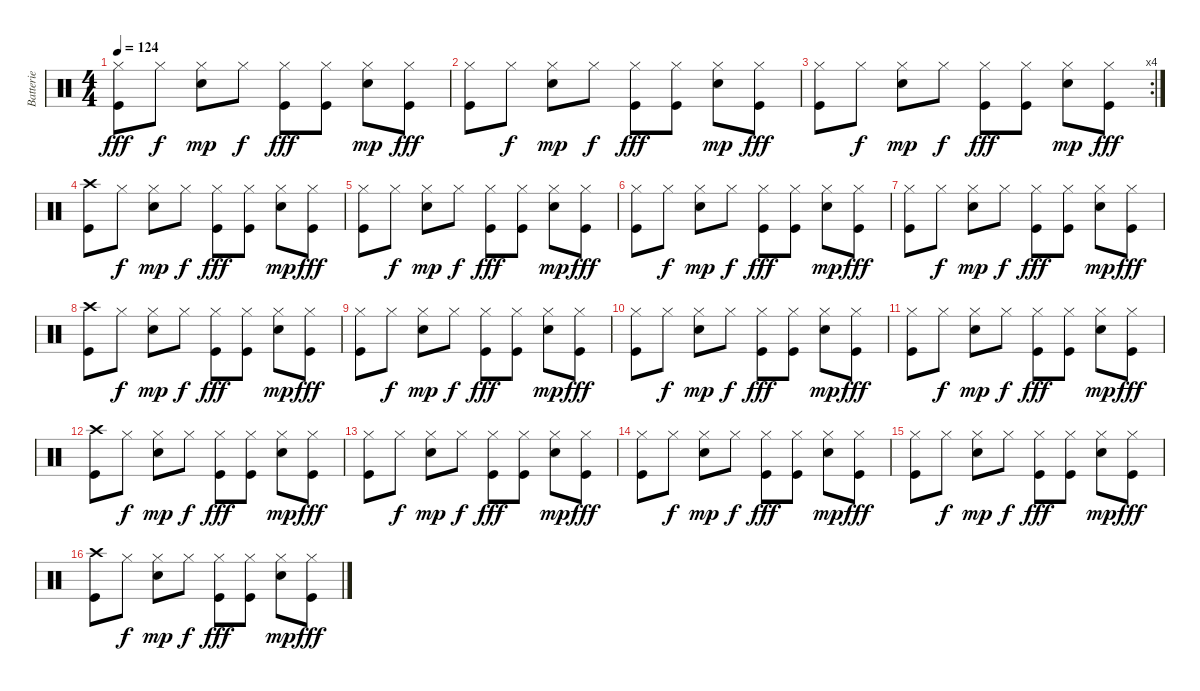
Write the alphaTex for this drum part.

\track ("Batterie" "Batterie") {instrument percussion}
\staff {score}
\articulation defaults
\ts (4 4)
\tempo 124
\clef neutral
\ks c
("Hi-Hat (closed)" "Kick (hit)").8{dy fff} "Hi-Hat (closed)".8{dy f} ("Hi-Hat (closed)" "Electric Snare (hit)").8{dy mp} "Hi-Hat (closed)".8{dy f} ("Hi-Hat (closed)" "Kick (hit)").8{dy fff} ("Hi-Hat (closed)" "Kick (hit)").8 ("Hi-Hat (closed)" "Electric Snare (hit)").8{dy mp} ("Hi-Hat (closed)" "Kick (hit)").8{dy fff} |
("Hi-Hat (closed)" "Kick (hit)").8 "Hi-Hat (closed)".8{dy f} ("Hi-Hat (closed)" "Electric Snare (hit)").8{dy mp} "Hi-Hat (closed)".8{dy f} ("Hi-Hat (closed)" "Kick (hit)").8{dy fff} ("Hi-Hat (closed)" "Kick (hit)").8 ("Hi-Hat (closed)" "Electric Snare (hit)").8{dy mp} ("Hi-Hat (closed)" "Kick (hit)").8{dy fff} |
\rc 4
("Hi-Hat (closed)" "Kick (hit)").8 "Hi-Hat (closed)".8{dy f} ("Hi-Hat (closed)" "Electric Snare (hit)").8{dy mp} "Hi-Hat (closed)".8{dy f} ("Hi-Hat (closed)" "Kick (hit)").8{dy fff} ("Hi-Hat (closed)" "Kick (hit)").8 ("Hi-Hat (closed)" "Electric Snare (hit)").8{dy mp} ("Hi-Hat (closed)" "Kick (hit)").8{dy fff} |
("Crash high (hit)" "Kick (hit)").8{volume 11} "Hi-Hat (closed)".8{dy f} ("Hi-Hat (closed)" "Electric Snare (hit)").8{dy mp} "Hi-Hat (closed)".8{dy f} ("Hi-Hat (closed)" "Kick (hit)").8{dy fff} ("Hi-Hat (closed)" "Kick (hit)").8 ("Hi-Hat (closed)" "Electric Snare (hit)").8{dy mp} ("Hi-Hat (closed)" "Kick (hit)").8{dy fff} |
("Hi-Hat (closed)" "Kick (hit)").8 "Hi-Hat (closed)".8{dy f} ("Hi-Hat (closed)" "Electric Snare (hit)").8{dy mp} "Hi-Hat (closed)".8{dy f} ("Hi-Hat (closed)" "Kick (hit)").8{dy fff} ("Hi-Hat (closed)" "Kick (hit)").8 ("Hi-Hat (closed)" "Electric Snare (hit)").8{dy mp} ("Hi-Hat (closed)" "Kick (hit)").8{dy fff} |
("Hi-Hat (closed)" "Kick (hit)").8 "Hi-Hat (closed)".8{dy f} ("Hi-Hat (closed)" "Electric Snare (hit)").8{dy mp} "Hi-Hat (closed)".8{dy f} ("Hi-Hat (closed)" "Kick (hit)").8{dy fff} ("Hi-Hat (closed)" "Kick (hit)").8 ("Hi-Hat (closed)" "Electric Snare (hit)").8{dy mp} ("Hi-Hat (closed)" "Kick (hit)").8{dy fff} |
("Hi-Hat (closed)" "Kick (hit)").8 "Hi-Hat (closed)".8{dy f} ("Hi-Hat (closed)" "Electric Snare (hit)").8{dy mp} "Hi-Hat (closed)".8{dy f} ("Hi-Hat (closed)" "Kick (hit)").8{dy fff} ("Hi-Hat (closed)" "Kick (hit)").8 ("Hi-Hat (closed)" "Electric Snare (hit)").8{dy mp} ("Hi-Hat (closed)" "Kick (hit)").8{dy fff} |
("Crash high (hit)" "Kick (hit)").8{volume 9} "Hi-Hat (closed)".8{dy f} ("Hi-Hat (closed)" "Electric Snare (hit)").8{dy mp} "Hi-Hat (closed)".8{dy f} ("Hi-Hat (closed)" "Kick (hit)").8{dy fff} ("Hi-Hat (closed)" "Kick (hit)").8 ("Hi-Hat (closed)" "Electric Snare (hit)").8{dy mp} ("Hi-Hat (closed)" "Kick (hit)").8{dy fff} |
("Hi-Hat (closed)" "Kick (hit)").8 "Hi-Hat (closed)".8{dy f} ("Hi-Hat (closed)" "Electric Snare (hit)").8{dy mp} "Hi-Hat (closed)".8{dy f} ("Hi-Hat (closed)" "Kick (hit)").8{dy fff} ("Hi-Hat (closed)" "Kick (hit)").8 ("Hi-Hat (closed)" "Electric Snare (hit)").8{dy mp} ("Hi-Hat (closed)" "Kick (hit)").8{dy fff} |
("Hi-Hat (closed)" "Kick (hit)").8 "Hi-Hat (closed)".8{dy f} ("Hi-Hat (closed)" "Electric Snare (hit)").8{dy mp} "Hi-Hat (closed)".8{dy f} ("Hi-Hat (closed)" "Kick (hit)").8{dy fff} ("Hi-Hat (closed)" "Kick (hit)").8 ("Hi-Hat (closed)" "Electric Snare (hit)").8{dy mp} ("Hi-Hat (closed)" "Kick (hit)").8{dy fff} |
("Hi-Hat (closed)" "Kick (hit)").8 "Hi-Hat (closed)".8{dy f} ("Hi-Hat (closed)" "Electric Snare (hit)").8{dy mp} "Hi-Hat (closed)".8{dy f} ("Hi-Hat (closed)" "Kick (hit)").8{dy fff} ("Hi-Hat (closed)" "Kick (hit)").8 ("Hi-Hat (closed)" "Electric Snare (hit)").8{dy mp} ("Hi-Hat (closed)" "Kick (hit)").8{dy fff} |
("Crash high (hit)" "Kick (hit)").8{volume 7} "Hi-Hat (closed)".8{dy f} ("Hi-Hat (closed)" "Electric Snare (hit)").8{dy mp} "Hi-Hat (closed)".8{dy f} ("Hi-Hat (closed)" "Kick (hit)").8{dy fff} ("Hi-Hat (closed)" "Kick (hit)").8 ("Hi-Hat (closed)" "Electric Snare (hit)").8{dy mp} ("Hi-Hat (closed)" "Kick (hit)").8{dy fff} |
("Hi-Hat (closed)" "Kick (hit)").8 "Hi-Hat (closed)".8{dy f} ("Hi-Hat (closed)" "Electric Snare (hit)").8{dy mp} "Hi-Hat (closed)".8{dy f} ("Hi-Hat (closed)" "Kick (hit)").8{dy fff} ("Hi-Hat (closed)" "Kick (hit)").8 ("Hi-Hat (closed)" "Electric Snare (hit)").8{dy mp} ("Hi-Hat (closed)" "Kick (hit)").8{dy fff} |
("Hi-Hat (closed)" "Kick (hit)").8 "Hi-Hat (closed)".8{dy f} ("Hi-Hat (closed)" "Electric Snare (hit)").8{dy mp} "Hi-Hat (closed)".8{dy f} ("Hi-Hat (closed)" "Kick (hit)").8{dy fff} ("Hi-Hat (closed)" "Kick (hit)").8 ("Hi-Hat (closed)" "Electric Snare (hit)").8{dy mp} ("Hi-Hat (closed)" "Kick (hit)").8{dy fff} |
("Hi-Hat (closed)" "Kick (hit)").8 "Hi-Hat (closed)".8{dy f} ("Hi-Hat (closed)" "Electric Snare (hit)").8{dy mp} "Hi-Hat (closed)".8{dy f} ("Hi-Hat (closed)" "Kick (hit)").8{dy fff} ("Hi-Hat (closed)" "Kick (hit)").8 ("Hi-Hat (closed)" "Electric Snare (hit)").8{dy mp} ("Hi-Hat (closed)" "Kick (hit)").8{dy fff} |
("Crash high (hit)" "Kick (hit)").8{volume 0} "Hi-Hat (closed)".8{dy f} ("Hi-Hat (closed)" "Electric Snare (hit)").8{dy mp} "Hi-Hat (closed)".8{dy f} ("Hi-Hat (closed)" "Kick (hit)").8{dy fff} ("Hi-Hat (closed)" "Kick (hit)").8 ("Hi-Hat (closed)" "Electric Snare (hit)").8{dy mp} ("Hi-Hat (closed)" "Kick (hit)").8{dy fff}
